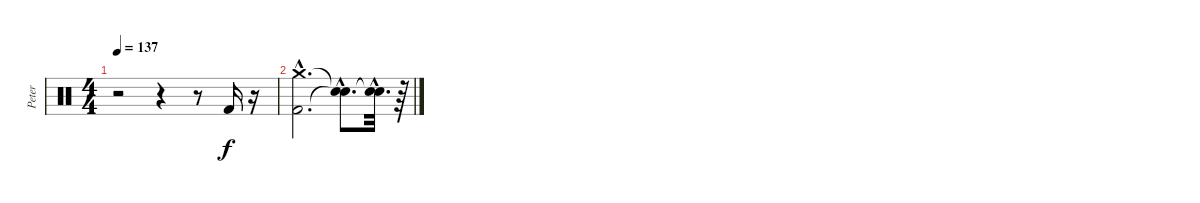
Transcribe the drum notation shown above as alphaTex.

\track ("Peter" "Peter") {instrument percussion}
\staff {score}
\articulation defaults
\ts (4 4)
\tempo 137
\clef neutral
\ks c
r.2{dy f} r.4 r.8 "Kick (hit) 2".16 r.16 |
("Kick (hit) 2"{hac} "Crash medium (hit)"{hac}).2{d} ("Snare (hit)"{hac t} "Snare (hit)"{hac t}).8{d} ("Snare (hit)"{hac t} "Snare (hit)"{hac t}).32{d} r.64
